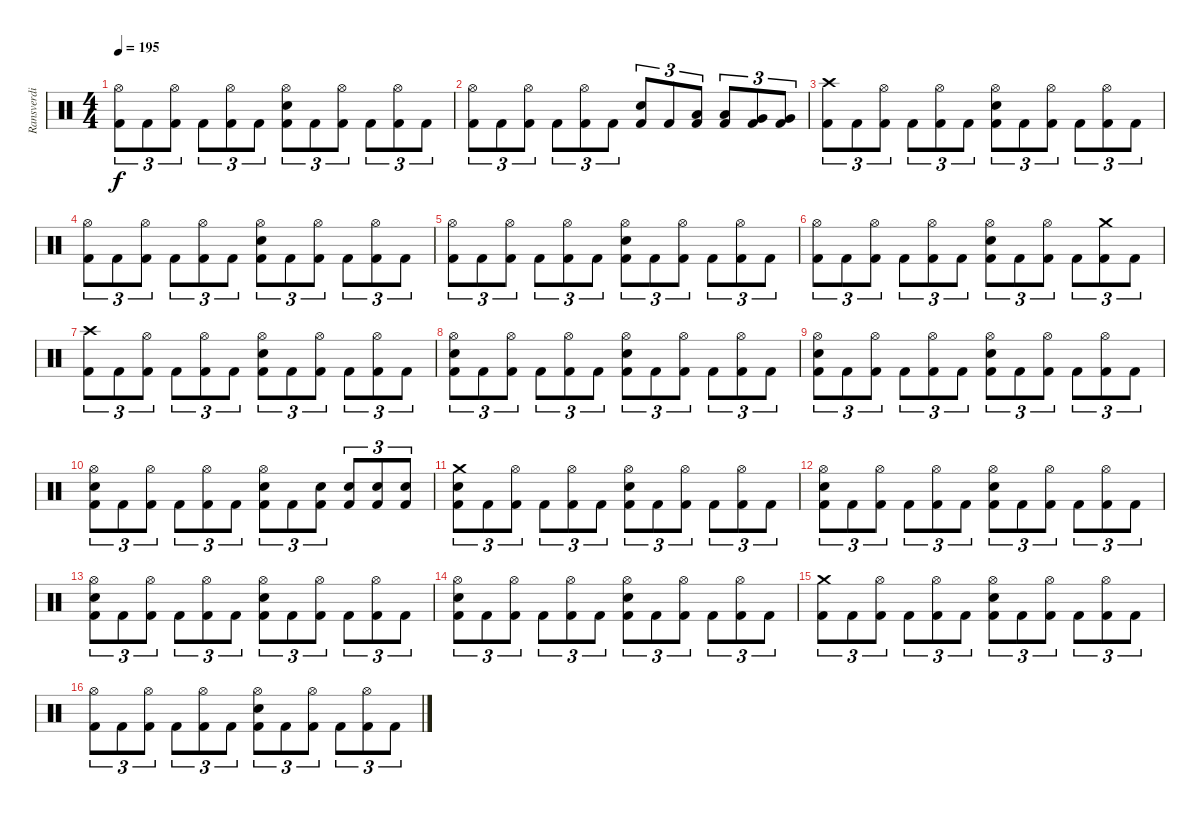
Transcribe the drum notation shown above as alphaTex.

\track ("Ransverdi" "Ransverdi") {instrument percussion}
\staff {score}
\articulation defaults
\ts (4 4)
\tempo 195
\clef neutral
\ks c
("Hi-Hat (open)" "Kick (hit) 2").8{tu (3 2) dy f} "Kick (hit) 2".8{tu (3 2)} ("Hi-Hat (open)" "Kick (hit) 2").8{tu (3 2)} "Kick (hit) 2".8{tu (3 2)} ("Hi-Hat (open)" "Kick (hit) 2").8{tu (3 2)} "Kick (hit) 2".8{tu (3 2)} ("Hi-Hat (open)" "Snare (hit) 2" "Kick (hit) 2").8{tu (3 2)} "Kick (hit) 2".8{tu (3 2)} ("Hi-Hat (open)" "Kick (hit) 2").8{tu (3 2)} "Kick (hit) 2".8{tu (3 2)} ("Hi-Hat (open)" "Kick (hit) 2").8{tu (3 2)} "Kick (hit) 2".8{tu (3 2)} |
("Hi-Hat (open)" "Kick (hit) 2").8{tu (3 2)} "Kick (hit) 2".8{tu (3 2)} ("Hi-Hat (open)" "Kick (hit) 2").8{tu (3 2)} "Kick (hit) 2".8{tu (3 2)} ("Hi-Hat (open)" "Kick (hit) 2").8{tu (3 2)} "Kick (hit) 2".8{tu (3 2)} ("Snare (hit) 2" "Kick (hit) 2").8{tu (3 2)} "Kick (hit) 2".8{tu (3 2)} ("Low Tom (hit)" "Kick (hit) 2").8{tu (3 2)} ("Low Tom (hit)" "Kick (hit) 2").8{tu (3 2)} ("Very Low Tom (hit)" "Kick (hit) 2").8{tu (3 2)} ("Very Low Tom (hit)" "Kick (hit) 2").8{tu (3 2)} |
("Crash high (hit)" "Kick (hit) 2").8{tu (3 2)} "Kick (hit) 2".8{tu (3 2)} ("Hi-Hat (open)" "Kick (hit) 2").8{tu (3 2)} "Kick (hit) 2".8{tu (3 2)} ("Hi-Hat (open)" "Kick (hit) 2").8{tu (3 2)} "Kick (hit) 2".8{tu (3 2)} ("Hi-Hat (open)" "Snare (hit) 2" "Kick (hit) 2").8{tu (3 2)} "Kick (hit) 2".8{tu (3 2)} ("Hi-Hat (open)" "Kick (hit) 2").8{tu (3 2)} "Kick (hit) 2".8{tu (3 2)} ("Hi-Hat (open)" "Kick (hit) 2").8{tu (3 2)} "Kick (hit) 2".8{tu (3 2)} |
("Hi-Hat (open)" "Kick (hit) 2").8{tu (3 2)} "Kick (hit) 2".8{tu (3 2)} ("Hi-Hat (open)" "Kick (hit) 2").8{tu (3 2)} "Kick (hit) 2".8{tu (3 2)} ("Hi-Hat (open)" "Kick (hit) 2").8{tu (3 2)} "Kick (hit) 2".8{tu (3 2)} ("Hi-Hat (open)" "Snare (hit) 2" "Kick (hit) 2").8{tu (3 2)} "Kick (hit) 2".8{tu (3 2)} ("Hi-Hat (open)" "Kick (hit) 2").8{tu (3 2)} "Kick (hit) 2".8{tu (3 2)} ("Hi-Hat (open)" "Kick (hit) 2").8{tu (3 2)} "Kick (hit) 2".8{tu (3 2)} |
("Hi-Hat (open)" "Kick (hit) 2").8{tu (3 2)} "Kick (hit) 2".8{tu (3 2)} ("Hi-Hat (open)" "Kick (hit) 2").8{tu (3 2)} "Kick (hit) 2".8{tu (3 2)} ("Hi-Hat (open)" "Kick (hit) 2").8{tu (3 2)} "Kick (hit) 2".8{tu (3 2)} ("Hi-Hat (open)" "Snare (hit) 2" "Kick (hit) 2").8{tu (3 2)} "Kick (hit) 2".8{tu (3 2)} ("Hi-Hat (open)" "Kick (hit) 2").8{tu (3 2)} "Kick (hit) 2".8{tu (3 2)} ("Hi-Hat (open)" "Kick (hit) 2").8{tu (3 2)} "Kick (hit) 2".8{tu (3 2)} |
("Hi-Hat (open)" "Kick (hit) 2").8{tu (3 2)} "Kick (hit) 2".8{tu (3 2)} ("Hi-Hat (open)" "Kick (hit) 2").8{tu (3 2)} "Kick (hit) 2".8{tu (3 2)} ("Hi-Hat (open)" "Kick (hit) 2").8{tu (3 2)} "Kick (hit) 2".8{tu (3 2)} ("Hi-Hat (open)" "Snare (hit) 2" "Kick (hit) 2").8{tu (3 2)} "Kick (hit) 2".8{tu (3 2)} ("Hi-Hat (open)" "Kick (hit) 2").8{tu (3 2)} "Kick (hit) 2".8{tu (3 2)} ("Crash medium (hit)" "Kick (hit) 2").8{tu (3 2)} "Kick (hit) 2".8{tu (3 2)} |
("Crash high (hit)" "Kick (hit) 2").8{tu (3 2)} "Kick (hit) 2".8{tu (3 2)} ("Hi-Hat (open)" "Kick (hit) 2").8{tu (3 2)} "Kick (hit) 2".8{tu (3 2)} ("Hi-Hat (open)" "Kick (hit) 2").8{tu (3 2)} "Kick (hit) 2".8{tu (3 2)} ("Hi-Hat (open)" "Snare (hit) 2" "Kick (hit) 2").8{tu (3 2)} "Kick (hit) 2".8{tu (3 2)} ("Hi-Hat (open)" "Kick (hit) 2").8{tu (3 2)} "Kick (hit) 2".8{tu (3 2)} ("Hi-Hat (open)" "Kick (hit) 2").8{tu (3 2)} "Kick (hit) 2".8{tu (3 2)} |
("Hi-Hat (open)" "Snare (hit) 2" "Kick (hit) 2").8{tu (3 2)} "Kick (hit) 2".8{tu (3 2)} ("Hi-Hat (open)" "Kick (hit) 2").8{tu (3 2)} "Kick (hit) 2".8{tu (3 2)} ("Hi-Hat (open)" "Kick (hit) 2").8{tu (3 2)} "Kick (hit) 2".8{tu (3 2)} ("Hi-Hat (open)" "Snare (hit) 2" "Kick (hit) 2").8{tu (3 2)} "Kick (hit) 2".8{tu (3 2)} ("Hi-Hat (open)" "Kick (hit) 2").8{tu (3 2)} "Kick (hit) 2".8{tu (3 2)} ("Hi-Hat (open)" "Kick (hit) 2").8{tu (3 2)} "Kick (hit) 2".8{tu (3 2)} |
("Hi-Hat (open)" "Snare (hit) 2" "Kick (hit) 2").8{tu (3 2)} "Kick (hit) 2".8{tu (3 2)} ("Hi-Hat (open)" "Kick (hit) 2").8{tu (3 2)} "Kick (hit) 2".8{tu (3 2)} ("Hi-Hat (open)" "Kick (hit) 2").8{tu (3 2)} "Kick (hit) 2".8{tu (3 2)} ("Hi-Hat (open)" "Snare (hit) 2" "Kick (hit) 2").8{tu (3 2)} "Kick (hit) 2".8{tu (3 2)} ("Hi-Hat (open)" "Kick (hit) 2").8{tu (3 2)} "Kick (hit) 2".8{tu (3 2)} ("Hi-Hat (open)" "Kick (hit) 2").8{tu (3 2)} "Kick (hit) 2".8{tu (3 2)} |
("Hi-Hat (open)" "Snare (hit) 2" "Kick (hit) 2").8{tu (3 2)} "Kick (hit) 2".8{tu (3 2)} ("Hi-Hat (open)" "Kick (hit) 2").8{tu (3 2)} "Kick (hit) 2".8{tu (3 2)} ("Hi-Hat (open)" "Kick (hit) 2").8{tu (3 2)} "Kick (hit) 2".8{tu (3 2)} ("Hi-Hat (open)" "Snare (hit) 2" "Kick (hit) 2").8{tu (3 2)} "Kick (hit) 2".8{tu (3 2)} ("Snare (hit) 2" "Kick (hit) 2").8{tu (3 2)} ("Snare (hit) 2" "Kick (hit) 2").8{tu (3 2)} ("Snare (hit) 2" "Kick (hit) 2").8{tu (3 2)} ("Snare (hit) 2" "Kick (hit) 2").8{tu (3 2)} |
("Crash medium (hit)" "Snare (hit) 2" "Kick (hit) 2").8{tu (3 2)} "Kick (hit) 2".8{tu (3 2)} ("Hi-Hat (open)" "Kick (hit) 2").8{tu (3 2)} "Kick (hit) 2".8{tu (3 2)} ("Hi-Hat (open)" "Kick (hit) 2").8{tu (3 2)} "Kick (hit) 2".8{tu (3 2)} ("Hi-Hat (open)" "Snare (hit) 2" "Kick (hit) 2").8{tu (3 2)} "Kick (hit) 2".8{tu (3 2)} ("Hi-Hat (open)" "Kick (hit) 2").8{tu (3 2)} "Kick (hit) 2".8{tu (3 2)} ("Hi-Hat (open)" "Kick (hit) 2").8{tu (3 2)} "Kick (hit) 2".8{tu (3 2)} |
("Hi-Hat (open)" "Snare (hit) 2" "Kick (hit) 2").8{tu (3 2)} "Kick (hit) 2".8{tu (3 2)} ("Hi-Hat (open)" "Kick (hit) 2").8{tu (3 2)} "Kick (hit) 2".8{tu (3 2)} ("Hi-Hat (open)" "Kick (hit) 2").8{tu (3 2)} "Kick (hit) 2".8{tu (3 2)} ("Hi-Hat (open)" "Snare (hit) 2" "Kick (hit) 2").8{tu (3 2)} "Kick (hit) 2".8{tu (3 2)} ("Hi-Hat (open)" "Kick (hit) 2").8{tu (3 2)} "Kick (hit) 2".8{tu (3 2)} ("Hi-Hat (open)" "Kick (hit) 2").8{tu (3 2)} "Kick (hit) 2".8{tu (3 2)} |
("Hi-Hat (open)" "Snare (hit) 2" "Kick (hit) 2").8{tu (3 2)} "Kick (hit) 2".8{tu (3 2)} ("Hi-Hat (open)" "Kick (hit) 2").8{tu (3 2)} "Kick (hit) 2".8{tu (3 2)} ("Hi-Hat (open)" "Kick (hit) 2").8{tu (3 2)} "Kick (hit) 2".8{tu (3 2)} ("Hi-Hat (open)" "Snare (hit) 2" "Kick (hit) 2").8{tu (3 2)} "Kick (hit) 2".8{tu (3 2)} ("Hi-Hat (open)" "Kick (hit) 2").8{tu (3 2)} "Kick (hit) 2".8{tu (3 2)} ("Hi-Hat (open)" "Kick (hit) 2").8{tu (3 2)} "Kick (hit) 2".8{tu (3 2)} |
("Hi-Hat (open)" "Snare (hit) 2" "Kick (hit) 2").8{tu (3 2)} "Kick (hit) 2".8{tu (3 2)} ("Hi-Hat (open)" "Kick (hit) 2").8{tu (3 2)} "Kick (hit) 2".8{tu (3 2)} ("Hi-Hat (open)" "Kick (hit) 2").8{tu (3 2)} "Kick (hit) 2".8{tu (3 2)} ("Hi-Hat (open)" "Snare (hit) 2" "Kick (hit) 2").8{tu (3 2)} "Kick (hit) 2".8{tu (3 2)} ("Hi-Hat (open)" "Kick (hit) 2").8{tu (3 2)} "Kick (hit) 2".8{tu (3 2)} ("Hi-Hat (open)" "Kick (hit) 2").8{tu (3 2)} "Kick (hit) 2".8{tu (3 2)} |
("Crash medium (hit)" "Kick (hit) 2").8{tu (3 2)} "Kick (hit) 2".8{tu (3 2)} ("Hi-Hat (open)" "Kick (hit) 2").8{tu (3 2)} "Kick (hit) 2".8{tu (3 2)} ("Hi-Hat (open)" "Kick (hit) 2").8{tu (3 2)} "Kick (hit) 2".8{tu (3 2)} ("Hi-Hat (open)" "Snare (hit) 2" "Kick (hit) 2").8{tu (3 2)} "Kick (hit) 2".8{tu (3 2)} ("Hi-Hat (open)" "Kick (hit) 2").8{tu (3 2)} "Kick (hit) 2".8{tu (3 2)} ("Hi-Hat (open)" "Kick (hit) 2").8{tu (3 2)} "Kick (hit) 2".8{tu (3 2)} |
("Hi-Hat (open)" "Kick (hit) 2").8{tu (3 2)} "Kick (hit) 2".8{tu (3 2)} ("Hi-Hat (open)" "Kick (hit) 2").8{tu (3 2)} "Kick (hit) 2".8{tu (3 2)} ("Hi-Hat (open)" "Kick (hit) 2").8{tu (3 2)} "Kick (hit) 2".8{tu (3 2)} ("Hi-Hat (open)" "Snare (hit) 2" "Kick (hit) 2").8{tu (3 2)} "Kick (hit) 2".8{tu (3 2)} ("Hi-Hat (open)" "Kick (hit) 2").8{tu (3 2)} "Kick (hit) 2".8{tu (3 2)} ("Hi-Hat (open)" "Kick (hit) 2").8{tu (3 2)} "Kick (hit) 2".8{tu (3 2)}
